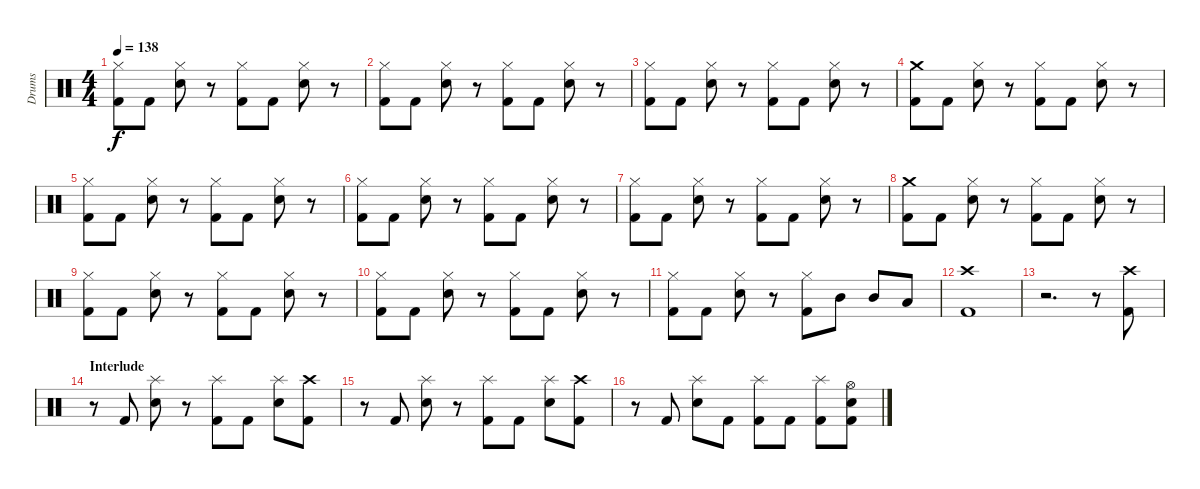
\track ("Drums" "Drums") {instrument percussion}
\staff {score}
\articulation defaults
\ts (4 4)
\tempo 138
\clef neutral
\ks c
("Hi-Hat (closed)" "Kick (hit) 2").8{dy f} "Kick (hit) 2".8 ("Hi-Hat (closed)" "Electric Snare (hit)").8 r.8 ("Hi-Hat (closed)" "Kick (hit) 2").8 "Kick (hit) 2".8 ("Hi-Hat (closed)" "Electric Snare (hit)").8 r.8 |
("Hi-Hat (closed)" "Kick (hit) 2").8 "Kick (hit) 2".8 ("Hi-Hat (closed)" "Electric Snare (hit)").8 r.8 ("Hi-Hat (closed)" "Kick (hit) 2").8 "Kick (hit) 2".8 ("Hi-Hat (closed)" "Electric Snare (hit)").8 r.8 |
("Hi-Hat (closed)" "Kick (hit) 2").8 "Kick (hit) 2".8 ("Hi-Hat (closed)" "Electric Snare (hit)").8 r.8 ("Hi-Hat (closed)" "Kick (hit) 2").8 "Kick (hit) 2".8 ("Hi-Hat (closed)" "Electric Snare (hit)").8 r.8 |
("Crash medium (hit)" "Kick (hit) 2").8 "Kick (hit) 2".8 ("Hi-Hat (closed)" "Electric Snare (hit)").8 r.8 ("Hi-Hat (closed)" "Kick (hit) 2").8 "Kick (hit) 2".8 ("Hi-Hat (closed)" "Electric Snare (hit)").8 r.8 |
("Hi-Hat (closed)" "Kick (hit) 2").8 "Kick (hit) 2".8 ("Hi-Hat (closed)" "Electric Snare (hit)").8 r.8 ("Hi-Hat (closed)" "Kick (hit) 2").8 "Kick (hit) 2".8 ("Hi-Hat (closed)" "Electric Snare (hit)").8 r.8 |
("Hi-Hat (closed)" "Kick (hit) 2").8 "Kick (hit) 2".8 ("Hi-Hat (closed)" "Electric Snare (hit)").8 r.8 ("Hi-Hat (closed)" "Kick (hit) 2").8 "Kick (hit) 2".8 ("Hi-Hat (closed)" "Electric Snare (hit)").8 r.8 |
("Hi-Hat (closed)" "Kick (hit) 2").8 "Kick (hit) 2".8 ("Hi-Hat (closed)" "Electric Snare (hit)").8 r.8 ("Hi-Hat (closed)" "Kick (hit) 2").8 "Kick (hit) 2".8 ("Hi-Hat (closed)" "Electric Snare (hit)").8 r.8 |
("Crash medium (hit)" "Kick (hit) 2").8 "Kick (hit) 2".8 ("Hi-Hat (closed)" "Electric Snare (hit)").8 r.8 ("Hi-Hat (closed)" "Kick (hit) 2").8 "Kick (hit) 2".8 ("Hi-Hat (closed)" "Electric Snare (hit)").8 r.8 |
("Hi-Hat (closed)" "Kick (hit) 2").8 "Kick (hit) 2".8 ("Hi-Hat (closed)" "Electric Snare (hit)").8 r.8 ("Hi-Hat (closed)" "Kick (hit) 2").8 "Kick (hit) 2".8 ("Hi-Hat (closed)" "Electric Snare (hit)").8 r.8 |
("Hi-Hat (closed)" "Kick (hit) 2").8 "Kick (hit) 2".8 ("Hi-Hat (closed)" "Electric Snare (hit)").8 r.8 ("Hi-Hat (closed)" "Kick (hit) 2").8 "Kick (hit) 2".8 ("Hi-Hat (closed)" "Electric Snare (hit)").8 r.8 |
("Hi-Hat (closed)" "Kick (hit) 2").8 "Kick (hit) 2".8 ("Hi-Hat (closed)" "Electric Snare (hit)").8 r.8 ("Hi-Hat (closed)" "Kick (hit) 2").8 "Mid Tom (hit)".8 "Mid Tom (hit)".8 "Low Tom (hit)".8 |
("Crash high (hit)" "Kick (hit) 2").1 |
r.2{d} r.8 ("Crash high (hit)" "Kick (hit) 2").8 |
\section ("" "Interlude")
r.8 "Kick (hit) 2".8 ("Splash (hit)" "Electric Snare (hit)").8 r.8 ("Splash (hit)" "Kick (hit) 2").8 "Kick (hit) 2".8 ("Splash (hit)" "Electric Snare (hit)").8 ("Crash high (hit)" "Kick (hit) 2").8 |
r.8 "Kick (hit) 2".8 ("Splash (hit)" "Electric Snare (hit)").8 r.8 ("Splash (hit)" "Kick (hit) 2").8 "Kick (hit) 2".8 ("Splash (hit)" "Electric Snare (hit)").8 ("Crash high (hit)" "Kick (hit) 2").8 |
r.8 "Kick (hit) 2".8 ("Splash (hit)" "Electric Snare (hit)").8 "Kick (hit) 2".8 ("Splash (hit)" "Kick (hit) 2").8 "Kick (hit) 2".8 ("Splash (hit)" "Kick (hit) 2").8 ("Hi-Hat (open)" "Electric Snare (hit)" "Kick (hit) 2").8
